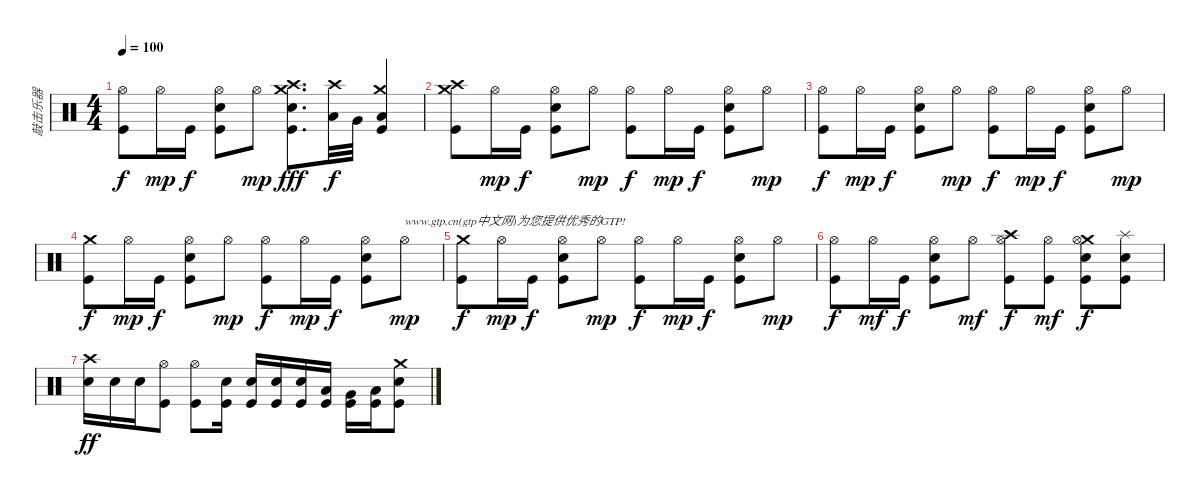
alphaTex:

\track ("敲击乐器" "敲击乐器") {instrument percussion}
\staff {score}
\articulation defaults
\ts (4 4)
\tempo 100
\clef neutral
\ks c
("Kick (hit)" "Hi-Hat (open)").8{dy f} "Hi-Hat (open)".16{dy mp} "Kick (hit)".16{dy f} ("Snare (hit) 2" "Kick (hit)" "Hi-Hat (open)").8 "Hi-Hat (open)".8{dy mp} ("Crash medium (hit)" "Crash high (hit)" "Snare (hit) 2" "Kick (hit)").8{d dy fff} ("Crash high (hit)" "Low Tom (hit)").32{dy f} "Very Low Tom (hit)".32 ("Crash medium (hit)" "Kick (hit)" "Low Floor Tom (hit)").4 |
("Kick (hit)" "Crash medium (hit)" "Crash high (hit)").8 "Hi-Hat (open)".16{dy mp} "Kick (hit)".16{dy f} ("Snare (hit) 2" "Kick (hit)" "Hi-Hat (open)").8 "Hi-Hat (open)".8{dy mp} ("Kick (hit)" "Hi-Hat (open)").8{dy f} "Hi-Hat (open)".16{dy mp} "Kick (hit)".16{dy f} ("Snare (hit) 2" "Kick (hit)" "Hi-Hat (open)").8 "Hi-Hat (open)".8{dy mp} |
("Hi-Hat (open)" "Kick (hit)").8{dy f} "Hi-Hat (open)".16{dy mp} "Kick (hit)".16{dy f} ("Hi-Hat (open)" "Snare (hit) 2" "Kick (hit)").8 "Hi-Hat (open)".8{dy mp} ("Hi-Hat (open)" "Kick (hit)").8{dy f} "Hi-Hat (open)".16{dy mp} "Kick (hit)".16{dy f} ("Hi-Hat (open)" "Snare (hit) 2" "Kick (hit)").8 "Hi-Hat (open)".8{dy mp} |
("Crash medium (hit)" "Kick (hit)").8{dy f} "Hi-Hat (open)".16{dy mp} "Kick (hit)".16{dy f} ("Snare (hit) 2" "Kick (hit)" "Hi-Hat (open)").8 "Hi-Hat (open)".8{dy mp} ("Kick (hit)" "Hi-Hat (open)").8{dy f} "Hi-Hat (open)".16{dy mp} "Kick (hit)".16{dy f} ("Snare (hit) 2" "Kick (hit)" "Hi-Hat (open)").8 "Hi-Hat (open)".8{txt "www.gtp.cn(gtp中文网)为您提供优秀的GTP!" dy mp} |
("Crash medium (hit)" "Kick (hit)").8{dy f} "Hi-Hat (open)".16{dy mp} "Kick (hit)".16{dy f} ("Snare (hit) 2" "Kick (hit)" "Hi-Hat (open)").8 "Hi-Hat (open)".8{dy mp} ("Kick (hit)" "Hi-Hat (open)").8{dy f} "Hi-Hat (open)".16{dy mp} "Kick (hit)".16{dy f} ("Snare (hit) 2" "Kick (hit)" "Hi-Hat (open)").8 "Hi-Hat (open)".8{dy mp} |
("Hi-Hat (open)" "Kick (hit)").8{dy f} "Hi-Hat (open)".16{dy mf} "Kick (hit)".16{dy f} ("Hi-Hat (open)" "Snare (hit) 2" "Kick (hit)").8 "Hi-Hat (open)".8{dy mf} ("Crash high (hit)" "Hi-Hat (open)" "Kick (hit)").8{dy f} ("Kick (hit)" "Hi-Hat (open)").8{dy mf} ("Crash medium (hit)" "Hi-Hat (open)" "Snare (hit) 2" "Kick (hit)").8{dy f} ("Kick (hit)" "Splash (hit)" "Snare (hit) 2").8 |
("Crash high (hit)" "Snare (hit) 2").16{dy ff} "Snare (hit) 2".16 "Snare (hit) 2".16 ("Hi-Hat (open)" "Kick (hit)").8 ("Hi-Hat (open)" "Kick (hit)").8 ("Kick (hit)" "Snare (hit) 2").16 ("Kick (hit)" "Snare (hit) 2").16 ("Kick (hit)" "Snare (hit) 2").16 ("Kick (hit)" "Snare (hit) 2").16 ("Kick (hit)" "Low Tom (hit)").16 ("Kick (hit)" "Very Low Tom (hit)").16 ("Kick (hit)" "Low Floor Tom (hit)").16 ("Kick (hit)" "Crash medium (hit)" "Snare (hit) 2").8
